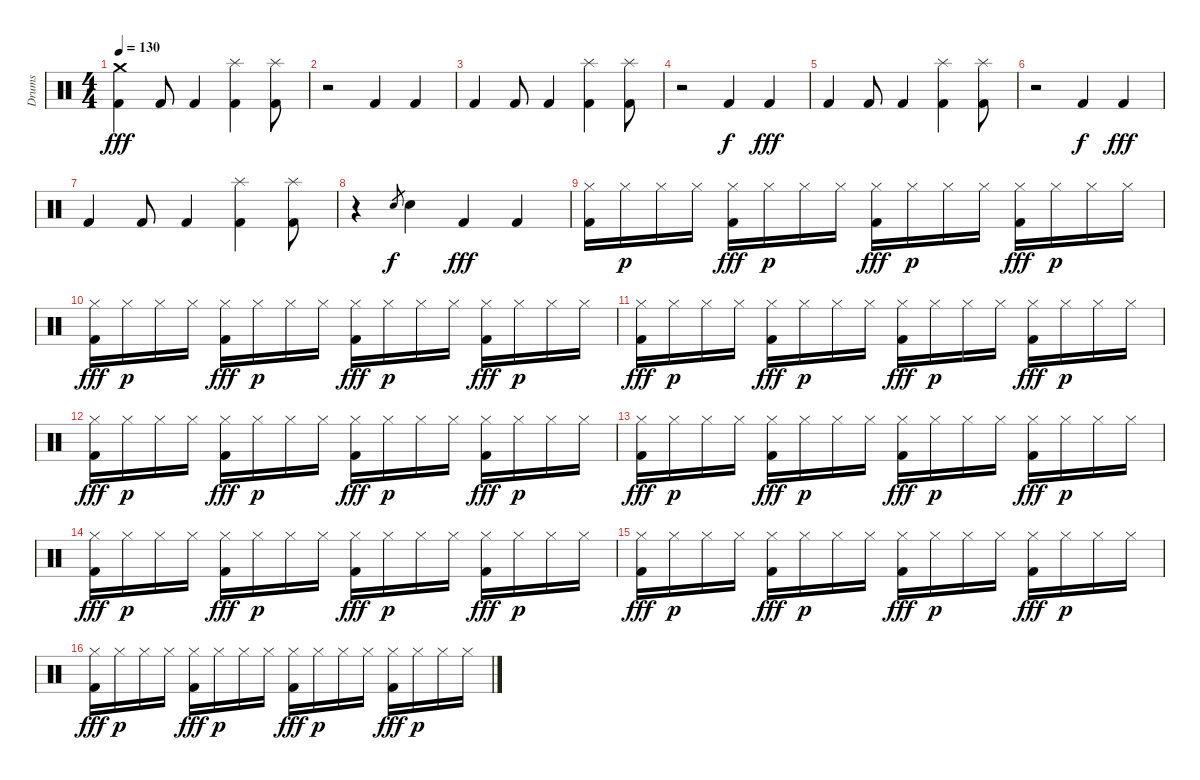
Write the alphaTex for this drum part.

\track ("Drums" "Drums") {instrument percussion}
\staff {score}
\articulation defaults
\ts (4 4)
\tempo 130
\clef neutral
\ks c
("Crash medium (hit)" "Kick (hit) 2").4{dy fff} "Kick (hit) 2".8 "Kick (hit) 2".4 ("Splash (hit)" "Kick (hit) 2").4 ("Splash (hit)" "Kick (hit) 2").8 |
r.2 "Kick (hit) 2".4 "Kick (hit) 2".4 |
"Kick (hit) 2".4 "Kick (hit) 2".8 "Kick (hit) 2".4 ("Splash (hit)" "Kick (hit) 2").4 ("Splash (hit)" "Kick (hit) 2").8 |
r.2 "Kick (hit) 2".4{dy f} "Kick (hit) 2".4{dy fff} |
"Kick (hit) 2".4 "Kick (hit) 2".8 "Kick (hit) 2".4 ("Splash (hit)" "Kick (hit) 2").4 ("Splash (hit)" "Kick (hit) 2").8 |
r.2 "Kick (hit) 2".4{dy f} "Kick (hit) 2".4{dy fff} |
"Kick (hit) 2".4 "Kick (hit) 2".8 "Kick (hit) 2".4 ("Splash (hit)" "Kick (hit) 2").4 ("Splash (hit)" "Kick (hit) 2").8 |
r.4 "Snare (hit) 2".8{gr dy f} "Snare (hit) 2".4 "Kick (hit) 2".4{dy fff} "Kick (hit) 2".4 |
("Hi-Hat (closed)" "Kick (hit) 2").16 "Hi-Hat (closed)".16{dy p} "Hi-Hat (closed)".16 "Hi-Hat (closed)".16 ("Hi-Hat (closed)" "Kick (hit) 2").16{dy fff} "Hi-Hat (closed)".16{dy p} "Hi-Hat (closed)".16 "Hi-Hat (closed)".16 ("Hi-Hat (closed)" "Kick (hit) 2").16{dy fff} "Hi-Hat (closed)".16{dy p} "Hi-Hat (closed)".16 "Hi-Hat (closed)".16 ("Hi-Hat (closed)" "Kick (hit) 2").16{dy fff} "Hi-Hat (closed)".16{dy p} "Hi-Hat (closed)".16 "Hi-Hat (closed)".16 |
("Hi-Hat (closed)" "Kick (hit) 2").16{dy fff} "Hi-Hat (closed)".16{dy p} "Hi-Hat (closed)".16 "Hi-Hat (closed)".16 ("Hi-Hat (closed)" "Kick (hit) 2").16{dy fff} "Hi-Hat (closed)".16{dy p} "Hi-Hat (closed)".16 "Hi-Hat (closed)".16 ("Hi-Hat (closed)" "Kick (hit) 2").16{dy fff} "Hi-Hat (closed)".16{dy p} "Hi-Hat (closed)".16 "Hi-Hat (closed)".16 ("Hi-Hat (closed)" "Kick (hit) 2").16{dy fff} "Hi-Hat (closed)".16{dy p} "Hi-Hat (closed)".16 "Hi-Hat (closed)".16 |
("Hi-Hat (closed)" "Kick (hit) 2").16{dy fff} "Hi-Hat (closed)".16{dy p} "Hi-Hat (closed)".16 "Hi-Hat (closed)".16 ("Hi-Hat (closed)" "Kick (hit) 2").16{dy fff} "Hi-Hat (closed)".16{dy p} "Hi-Hat (closed)".16 "Hi-Hat (closed)".16 ("Hi-Hat (closed)" "Kick (hit) 2").16{dy fff} "Hi-Hat (closed)".16{dy p} "Hi-Hat (closed)".16 "Hi-Hat (closed)".16 ("Hi-Hat (closed)" "Kick (hit) 2").16{dy fff} "Hi-Hat (closed)".16{dy p} "Hi-Hat (closed)".16 "Hi-Hat (closed)".16 |
("Hi-Hat (closed)" "Kick (hit) 2").16{dy fff} "Hi-Hat (closed)".16{dy p} "Hi-Hat (closed)".16 "Hi-Hat (closed)".16 ("Hi-Hat (closed)" "Kick (hit) 2").16{dy fff} "Hi-Hat (closed)".16{dy p} "Hi-Hat (closed)".16 "Hi-Hat (closed)".16 ("Hi-Hat (closed)" "Kick (hit) 2").16{dy fff} "Hi-Hat (closed)".16{dy p} "Hi-Hat (closed)".16 "Hi-Hat (closed)".16 ("Hi-Hat (closed)" "Kick (hit) 2").16{dy fff} "Hi-Hat (closed)".16{dy p} "Hi-Hat (closed)".16 "Hi-Hat (closed)".16 |
("Hi-Hat (closed)" "Kick (hit) 2").16{dy fff} "Hi-Hat (closed)".16{dy p} "Hi-Hat (closed)".16 "Hi-Hat (closed)".16 ("Hi-Hat (closed)" "Kick (hit) 2").16{dy fff} "Hi-Hat (closed)".16{dy p} "Hi-Hat (closed)".16 "Hi-Hat (closed)".16 ("Hi-Hat (closed)" "Kick (hit) 2").16{dy fff} "Hi-Hat (closed)".16{dy p} "Hi-Hat (closed)".16 "Hi-Hat (closed)".16 ("Hi-Hat (closed)" "Kick (hit) 2").16{dy fff} "Hi-Hat (closed)".16{dy p} "Hi-Hat (closed)".16 "Hi-Hat (closed)".16 |
("Hi-Hat (closed)" "Kick (hit) 2").16{dy fff} "Hi-Hat (closed)".16{dy p} "Hi-Hat (closed)".16 "Hi-Hat (closed)".16 ("Hi-Hat (closed)" "Kick (hit) 2").16{dy fff} "Hi-Hat (closed)".16{dy p} "Hi-Hat (closed)".16 "Hi-Hat (closed)".16 ("Hi-Hat (closed)" "Kick (hit) 2").16{dy fff} "Hi-Hat (closed)".16{dy p} "Hi-Hat (closed)".16 "Hi-Hat (closed)".16 ("Hi-Hat (closed)" "Kick (hit) 2").16{dy fff} "Hi-Hat (closed)".16{dy p} "Hi-Hat (closed)".16 "Hi-Hat (closed)".16 |
("Hi-Hat (closed)" "Kick (hit) 2").16{dy fff} "Hi-Hat (closed)".16{dy p} "Hi-Hat (closed)".16 "Hi-Hat (closed)".16 ("Hi-Hat (closed)" "Kick (hit) 2").16{dy fff} "Hi-Hat (closed)".16{dy p} "Hi-Hat (closed)".16 "Hi-Hat (closed)".16 ("Hi-Hat (closed)" "Kick (hit) 2").16{dy fff} "Hi-Hat (closed)".16{dy p} "Hi-Hat (closed)".16 "Hi-Hat (closed)".16 ("Hi-Hat (closed)" "Kick (hit) 2").16{dy fff} "Hi-Hat (closed)".16{dy p} "Hi-Hat (closed)".16 "Hi-Hat (closed)".16 |
("Hi-Hat (closed)" "Kick (hit) 2").16{dy fff} "Hi-Hat (closed)".16{dy p} "Hi-Hat (closed)".16 "Hi-Hat (closed)".16 ("Hi-Hat (closed)" "Kick (hit) 2").16{dy fff} "Hi-Hat (closed)".16{dy p} "Hi-Hat (closed)".16 "Hi-Hat (closed)".16 ("Hi-Hat (closed)" "Kick (hit) 2").16{dy fff} "Hi-Hat (closed)".16{dy p} "Hi-Hat (closed)".16 "Hi-Hat (closed)".16 ("Hi-Hat (closed)" "Kick (hit) 2").16{dy fff} "Hi-Hat (closed)".16{dy p} "Hi-Hat (closed)".16 "Hi-Hat (closed)".16
